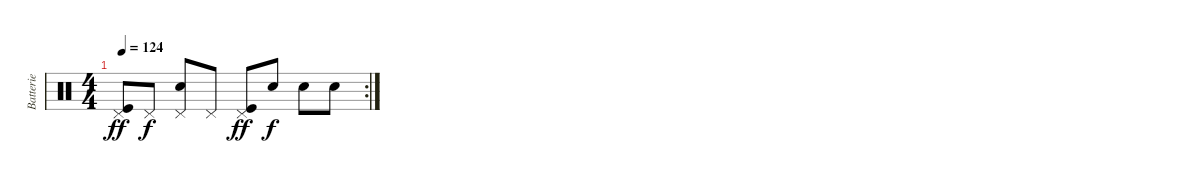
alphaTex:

\track ("Batterie" "Batterie") {instrument percussion}
\staff {score}
\articulation defaults
\rc 2
\ts (4 4)
\tempo 124
\clef neutral
\ks c
("Pedal Hi-Hat (hit)" "Kick (hit)").8{dy ff} "Pedal Hi-Hat (hit)".8{dy f} ("Pedal Hi-Hat (hit)" "Electric Snare (hit)").8 "Pedal Hi-Hat (hit)".8 ("Pedal Hi-Hat (hit)" "Kick (hit)").8{dy ff} "Electric Snare (hit)".8{dy f} "Electric Snare (hit)".8 "Electric Snare (hit)".8
